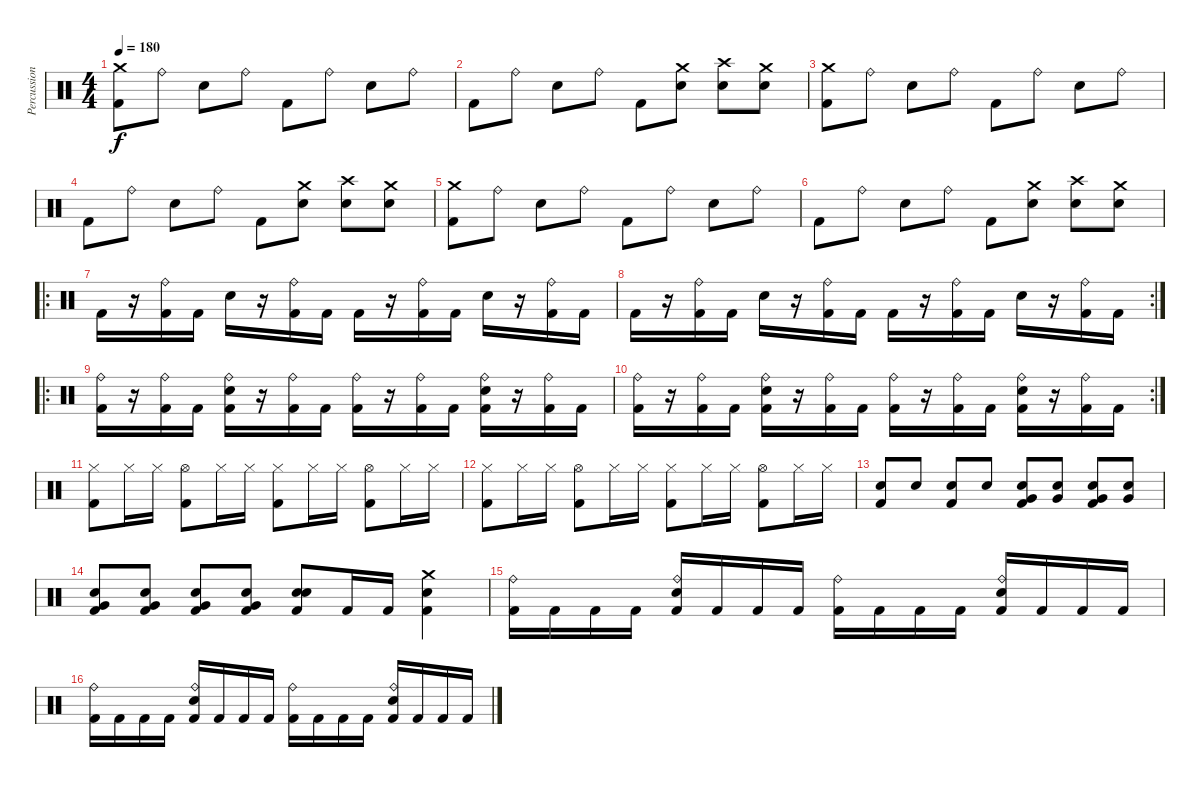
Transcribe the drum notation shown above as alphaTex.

\track ("Percussion" "Percussion") {instrument percussion}
\staff {score}
\articulation defaults
\ts (4 4)
\tempo 180
\clef neutral
\ks c
("Crash medium (hit)" "Kick (hit) 2").8{dy f} "Ride (bell)".8 "Snare (hit) 2".8 "Ride (bell)".8 "Kick (hit) 2".8 "Ride (bell)".8 "Snare (hit) 2".8 "Ride (bell)".8 |
"Kick (hit) 2".8 "Ride (bell)".8 "Snare (hit) 2".8 "Ride (bell)".8 "Kick (hit) 2".8 ("Crash medium (hit)" "Snare (hit) 2").8 ("Crash high (hit)" "Snare (hit) 2").8 ("Crash medium (hit)" "Snare (hit) 2").8 |
("Crash medium (hit)" "Kick (hit) 2").8 "Ride (bell)".8 "Snare (hit) 2".8 "Ride (bell)".8 "Kick (hit) 2".8 "Ride (bell)".8 "Snare (hit) 2".8 "Ride (bell)".8 |
"Kick (hit) 2".8 "Ride (bell)".8 "Snare (hit) 2".8 "Ride (bell)".8 "Kick (hit) 2".8 ("Crash medium (hit)" "Snare (hit) 2").8 ("Crash high (hit)" "Snare (hit) 2").8 ("Crash medium (hit)" "Snare (hit) 2").8 |
("Crash medium (hit)" "Kick (hit) 2").8 "Ride (bell)".8 "Snare (hit) 2".8 "Ride (bell)".8 "Kick (hit) 2".8 "Ride (bell)".8 "Snare (hit) 2".8 "Ride (bell)".8 |
"Kick (hit) 2".8 "Ride (bell)".8 "Snare (hit) 2".8 "Ride (bell)".8 "Kick (hit) 2".8 ("Crash medium (hit)" "Snare (hit) 2").8 ("Crash high (hit)" "Snare (hit) 2").8 ("Crash medium (hit)" "Snare (hit) 2").8 |
\ro "Kick (hit) 2".16
r.16 ("Ride (bell)" "Kick (hit) 2").16 "Kick (hit) 2".16 "Snare (hit) 2".16 r.16 ("Ride (bell)" "Kick (hit) 2").16 "Kick (hit) 2".16 "Kick (hit) 2".16 r.16 ("Ride (bell)" "Kick (hit) 2").16 "Kick (hit) 2".16 "Snare (hit) 2".16 r.16 ("Ride (bell)" "Kick (hit) 2").16 "Kick (hit) 2".16 |
\rc 2 "Kick (hit) 2".16
r.16 ("Ride (bell)" "Kick (hit) 2").16 "Kick (hit) 2".16 "Snare (hit) 2".16 r.16 ("Ride (bell)" "Kick (hit) 2").16 "Kick (hit) 2".16 "Kick (hit) 2".16 r.16 ("Ride (bell)" "Kick (hit) 2").16 "Kick (hit) 2".16 "Snare (hit) 2".16 r.16 ("Ride (bell)" "Kick (hit) 2").16 "Kick (hit) 2".16 |
\ro
("Ride (bell)" "Kick (hit) 2").16 r.16 ("Ride (bell)" "Kick (hit) 2").16 "Kick (hit) 2".16 ("Ride (bell)" "Snare (hit) 2" "Kick (hit) 2").16 r.16 ("Ride (bell)" "Kick (hit) 2").16 "Kick (hit) 2".16 ("Ride (bell)" "Kick (hit) 2").16 r.16 ("Ride (bell)" "Kick (hit) 2").16 "Kick (hit) 2".16 ("Ride (bell)" "Snare (hit) 2" "Kick (hit) 2").16 r.16 ("Ride (bell)" "Kick (hit) 2").16 "Kick (hit) 2".16 |
\rc 2
("Ride (bell)" "Kick (hit) 2").16 r.16 ("Ride (bell)" "Kick (hit) 2").16 "Kick (hit) 2".16 ("Ride (bell)" "Snare (hit) 2" "Kick (hit) 2").16 r.16 ("Ride (bell)" "Kick (hit) 2").16 "Kick (hit) 2".16 ("Ride (bell)" "Kick (hit) 2").16 r.16 ("Ride (bell)" "Kick (hit) 2").16 "Kick (hit) 2".16 ("Ride (bell)" "Snare (hit) 2" "Kick (hit) 2").16 r.16 ("Ride (bell)" "Kick (hit) 2").16 "Kick (hit) 2".16 |
("Hi-Hat (closed)" "Kick (hit) 2").8 "Hi-Hat (closed)".16 "Hi-Hat (closed)".16 ("Hi-Hat (open)" "Kick (hit) 2").8 "Hi-Hat (closed)".16 "Hi-Hat (closed)".16 ("Hi-Hat (closed)" "Kick (hit) 2").8 "Hi-Hat (closed)".16 "Hi-Hat (closed)".16 ("Hi-Hat (open)" "Kick (hit) 2").8 "Hi-Hat (closed)".16 "Hi-Hat (closed)".16 |
("Hi-Hat (closed)" "Kick (hit) 2").8 "Hi-Hat (closed)".16 "Hi-Hat (closed)".16 ("Hi-Hat (open)" "Kick (hit) 2").8 "Hi-Hat (closed)".16 "Hi-Hat (closed)".16 ("Hi-Hat (closed)" "Kick (hit) 2").8 "Hi-Hat (closed)".16 "Hi-Hat (closed)".16 ("Hi-Hat (open)" "Kick (hit) 2").8 "Hi-Hat (closed)".16 "Hi-Hat (closed)".16 |
("Snare (hit) 2" "Kick (hit) 2").8 "Snare (hit) 2".8 ("Snare (hit) 2" "Kick (hit) 2").8 "Snare (hit) 2".8 ("Very Low Tom (hit)" "Snare (hit) 2" "Kick (hit) 2").8 ("Very Low Tom (hit)" "Snare (hit) 2").8 ("Very Low Tom (hit)" "Snare (hit) 2" "Kick (hit) 2").8 ("Very Low Tom (hit)" "Snare (hit) 2").8 |
("Very Low Tom (hit)" "Snare (hit) 2" "Kick (hit) 2").8 ("Very Low Tom (hit)" "Snare (hit) 2" "Kick (hit) 2").8 ("Very Low Tom (hit)" "Snare (hit) 2" "Kick (hit) 2").8 ("Very Low Tom (hit)" "Snare (hit) 2" "Kick (hit) 2").8 ("Snare (hit) 2" "Snare (hit) 2" "Kick (hit) 2").8 "Kick (hit) 2".16 "Kick (hit) 2".16 ("Crash medium (hit)" "Snare (hit) 2" "Kick (hit) 2").4 |
("Ride (bell)" "Kick (hit) 2").16 "Kick (hit) 2".16 "Kick (hit) 2".16 "Kick (hit) 2".16 ("Ride (bell)" "Snare (hit) 2" "Kick (hit) 2").16 "Kick (hit) 2".16 "Kick (hit) 2".16 "Kick (hit) 2".16 ("Ride (bell)" "Kick (hit) 2").16 "Kick (hit) 2".16 "Kick (hit) 2".16 "Kick (hit) 2".16 ("Ride (bell)" "Snare (hit) 2" "Kick (hit) 2").16 "Kick (hit) 2".16 "Kick (hit) 2".16 "Kick (hit) 2".16 |
("Ride (bell)" "Kick (hit) 2").16 "Kick (hit) 2".16 "Kick (hit) 2".16 "Kick (hit) 2".16 ("Ride (bell)" "Snare (hit) 2" "Kick (hit) 2").16 "Kick (hit) 2".16 "Kick (hit) 2".16 "Kick (hit) 2".16 ("Ride (bell)" "Kick (hit) 2").16 "Kick (hit) 2".16 "Kick (hit) 2".16 "Kick (hit) 2".16 ("Ride (bell)" "Snare (hit) 2" "Kick (hit) 2").16 "Kick (hit) 2".16 "Kick (hit) 2".16 "Kick (hit) 2".16
